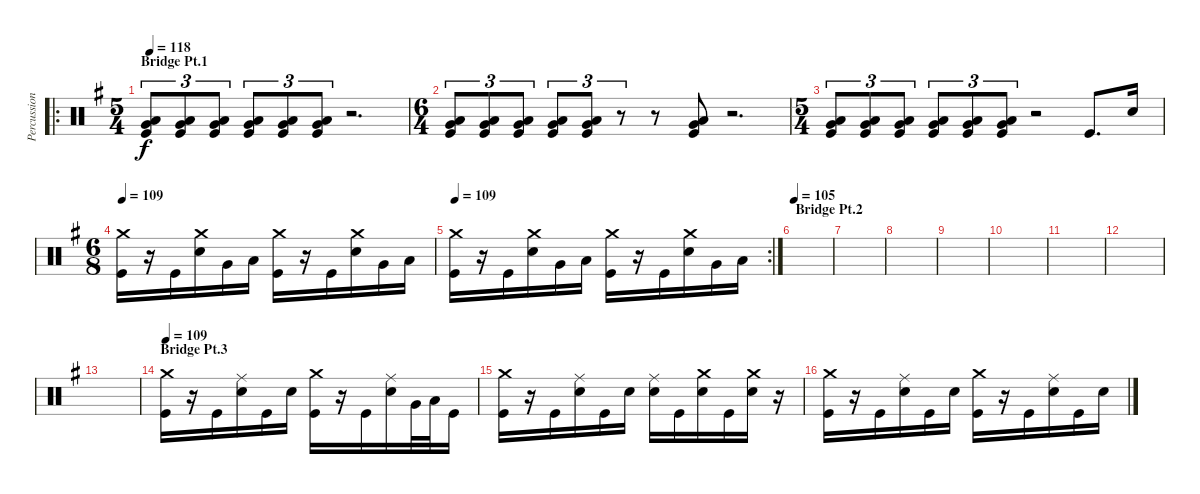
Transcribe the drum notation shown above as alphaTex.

\track ("Percussion" "Percussion") {instrument percussion}
\staff {score}
\articulation defaults
\ro
\ts (5 4)
\section ("" "Bridge Pt.1")
\tempo 118
\clef neutral
\ks g
("Very Low Tom (hit)" "Low Floor Tom (hit)" "Kick (hit)").8{tu (3 2) dy f} ("Very Low Tom (hit)" "Low Floor Tom (hit)" "Kick (hit)").8{tu (3 2)} ("Very Low Tom (hit)" "Low Floor Tom (hit)" "Kick (hit)").8{tu (3 2)} ("Very Low Tom (hit)" "Low Floor Tom (hit)" "Kick (hit)").8{tu (3 2)} ("Very Low Tom (hit)" "Low Floor Tom (hit)" "Kick (hit)").8{tu (3 2)} ("Very Low Tom (hit)" "Low Floor Tom (hit)" "Kick (hit)").8{tu (3 2)} r.2{d} |
\ts (6 4)
("Very Low Tom (hit)" "Low Floor Tom (hit)" "Kick (hit)").8{tu (3 2)} ("Very Low Tom (hit)" "Low Floor Tom (hit)" "Kick (hit)").8{tu (3 2)} ("Very Low Tom (hit)" "Low Floor Tom (hit)" "Kick (hit)").8{tu (3 2)} ("Very Low Tom (hit)" "Low Floor Tom (hit)" "Kick (hit)").8{tu (3 2)} ("Very Low Tom (hit)" "Low Floor Tom (hit)" "Kick (hit)").8{tu (3 2)} r.8{tu (3 2)} r.8 ("Very Low Tom (hit)" "Low Floor Tom (hit)" "Kick (hit)").8 r.2{d} |
\ts (5 4)
("Very Low Tom (hit)" "Low Floor Tom (hit)" "Kick (hit)").8{tu (3 2)} ("Very Low Tom (hit)" "Low Floor Tom (hit)" "Kick (hit)").8{tu (3 2)} ("Very Low Tom (hit)" "Low Floor Tom (hit)" "Kick (hit)").8{tu (3 2)} ("Very Low Tom (hit)" "Low Floor Tom (hit)" "Kick (hit)").8{tu (3 2)} ("Very Low Tom (hit)" "Low Floor Tom (hit)" "Kick (hit)").8{tu (3 2)} ("Very Low Tom (hit)" "Low Floor Tom (hit)" "Kick (hit)").8{tu (3 2)} r.2 "Kick (hit)".8{d} "Electric Snare (hit)".16 |
\ts (6 8)
\tempo 109
("Crash medium (hit)" "Kick (hit)").16 r.16 "Kick (hit)".16 ("Crash medium (hit)" "Electric Snare (hit)").16 "Very Low Tom (hit)".16 "Low Floor Tom (hit)".16 ("Crash medium (hit)" "Kick (hit)").16 r.16 "Kick (hit)".16 ("Crash medium (hit)" "Electric Snare (hit)").16 "Very Low Tom (hit)".16 "Low Floor Tom (hit)".16 |
\rc 2
\tempo 109
("Crash medium (hit)" "Kick (hit)").16 r.16 "Kick (hit)".16 ("Crash medium (hit)" "Electric Snare (hit)").16 "Very Low Tom (hit)".16 "Low Floor Tom (hit)".16 ("Crash medium (hit)" "Kick (hit)").16 r.16 "Kick (hit)".16 ("Crash medium (hit)" "Electric Snare (hit)").16 "Very Low Tom (hit)".16 "Low Floor Tom (hit)".16 |
\section ("" "Bridge Pt.2")
\tempo 105
|
|
|
|
|
|
|
|
\section ("" "Bridge Pt.3")
\tempo 109
("Crash medium (hit)" "Kick (hit)").16 r.16 "Kick (hit)".16 ("Ride (middle)" "Electric Snare (hit)").16 "Kick (hit)".16 "Electric Snare (hit)".16 ("Crash medium (hit)" "Kick (hit)").16 r.16 "Kick (hit)".16 ("Ride (middle)" "Electric Snare (hit)").16 "Very Low Tom (hit)".32 "Low Floor Tom (hit)".32 "Kick (hit)".16 |
("Crash medium (hit)" "Kick (hit)").16 r.16 "Kick (hit)".16 ("Ride (middle)" "Electric Snare (hit)").16 "Kick (hit)".16 "Electric Snare (hit)".16 ("Ride (middle)" "Electric Snare (hit)").16 "Kick (hit)".16 ("Crash medium (hit)" "Electric Snare (hit)").16 "Kick (hit)".16 ("Crash medium (hit)" "Electric Snare (hit)").16 r.16 |
("Crash medium (hit)" "Kick (hit)").16 r.16 "Kick (hit)".16 ("Ride (middle)" "Electric Snare (hit)").16 "Kick (hit)".16 "Electric Snare (hit)".16 ("Crash medium (hit)" "Kick (hit)").16 r.16 "Kick (hit)".16 ("Ride (middle)" "Electric Snare (hit)").16 "Kick (hit)".16 "Electric Snare (hit)".16
